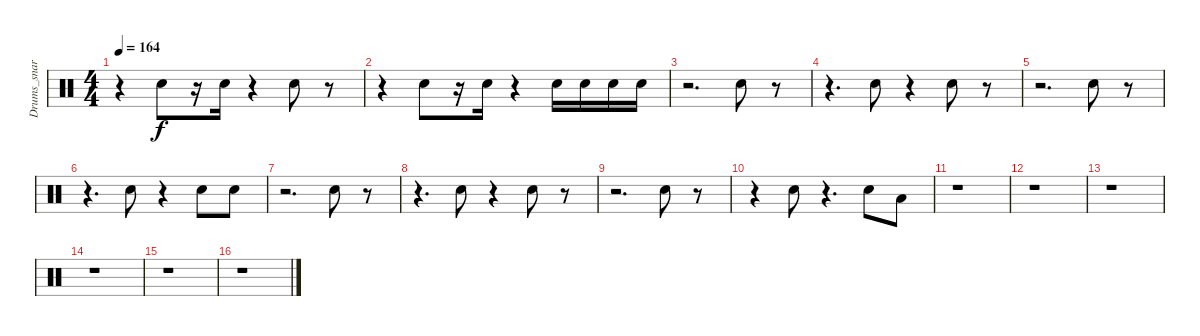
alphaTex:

\track ("Drums_snare&tom" "Drums_snar") {instrument percussion}
\staff {score}
\articulation defaults
\ts (4 4)
\tempo 164
\clef neutral
\ks c
r.4{dy f} "Snare (hit) 2".8 r.16 "Snare (hit) 2".16 r.4 "Snare (hit) 2".8 r.8 |
r.4 "Snare (hit) 2".8 r.16 "Snare (hit) 2".16 r.4 "Snare (hit) 2".16 "Snare (hit) 2".16 "Snare (hit) 2".16 "Snare (hit) 2".16 |
r.2{d} "Snare (hit) 2".8 r.8 |
r.4{d} "Snare (hit) 2".8 r.4 "Snare (hit) 2".8 r.8 |
r.2{d} "Snare (hit) 2".8 r.8 |
r.4{d} "Snare (hit) 2".8 r.4 "Snare (hit) 2".8 "Snare (hit) 2".8 |
r.2{d} "Snare (hit) 2".8 r.8 |
r.4{d} "Snare (hit) 2".8 r.4 "Snare (hit) 2".8 r.8 |
r.2{d} "Snare (hit) 2".8 r.8 |
r.4 "Snare (hit) 2".8 r.4{d} "Snare (hit) 2".8 "Low Tom (hit)".8 |
r.1 |
r.1 |
r.1 |
r.1 |
r.1 |
r.1
